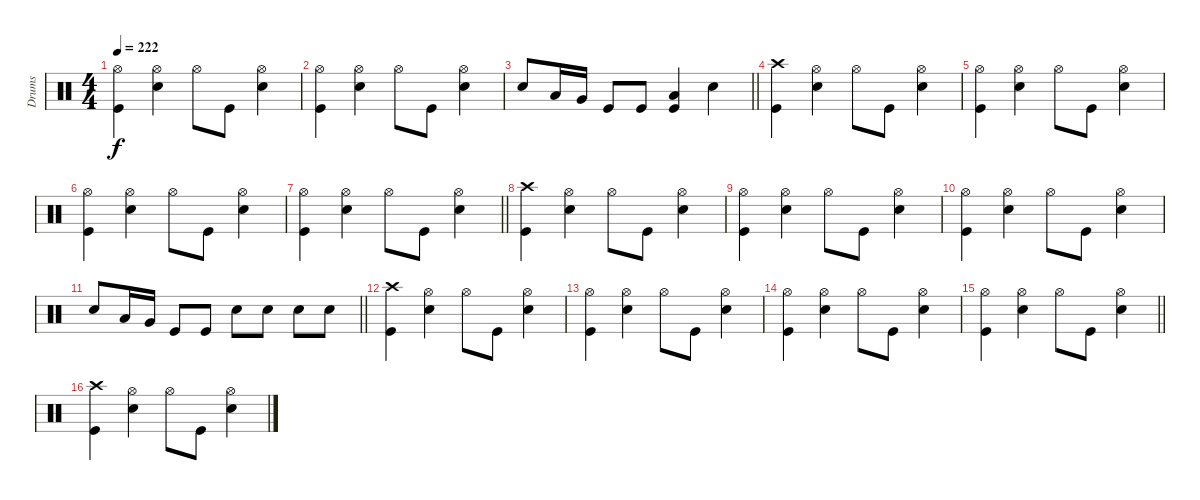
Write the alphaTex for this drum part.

\track ("Drums" "Drums") {instrument percussion}
\staff
\articulation defaults
\ts (4 4)
\tempo 222
\clef neutral
\ks c
("Hi-Hat (open)" "Kick (hit)").4{dy f} ("Hi-Hat (open)" "Electric Snare (hit)").4 "Hi-Hat (open)".8 "Kick (hit)".8 ("Hi-Hat (open)" "Electric Snare (hit)").4 |
("Hi-Hat (open)" "Kick (hit)").4 ("Hi-Hat (open)" "Electric Snare (hit)").4 "Hi-Hat (open)".8 "Kick (hit)".8 ("Hi-Hat (open)" "Electric Snare (hit)").4 |
\barLineRight lightlight "Electric Snare (hit)".8 "Low Tom (hit)".16 "Very Low Tom (hit)".16 "Kick (hit)".8 "Kick (hit)".8
("Low Floor Tom (hit)" "Kick (hit)").4 "Electric Snare (hit)".4 |
("Crash high (hit)" "Kick (hit)").4 ("Hi-Hat (open)" "Electric Snare (hit)").4 "Hi-Hat (open)".8 "Kick (hit)".8 ("Hi-Hat (open)" "Electric Snare (hit)").4 |
("Hi-Hat (open)" "Kick (hit)").4 ("Hi-Hat (open)" "Electric Snare (hit)").4 "Hi-Hat (open)".8 "Kick (hit)".8 ("Hi-Hat (open)" "Electric Snare (hit)").4 |
("Hi-Hat (open)" "Kick (hit)").4 ("Hi-Hat (open)" "Electric Snare (hit)").4 "Hi-Hat (open)".8 "Kick (hit)".8 ("Hi-Hat (open)" "Electric Snare (hit)").4 |
\barLineRight lightlight
("Hi-Hat (open)" "Kick (hit)").4 ("Hi-Hat (open)" "Electric Snare (hit)").4 "Hi-Hat (open)".8 "Kick (hit)".8 ("Hi-Hat (open)" "Electric Snare (hit)").4 |
("Crash high (hit)" "Kick (hit)").4 ("Hi-Hat (open)" "Electric Snare (hit)").4 "Hi-Hat (open)".8 "Kick (hit)".8 ("Hi-Hat (open)" "Electric Snare (hit)").4 |
("Hi-Hat (open)" "Kick (hit)").4 ("Hi-Hat (open)" "Electric Snare (hit)").4 "Hi-Hat (open)".8 "Kick (hit)".8 ("Hi-Hat (open)" "Electric Snare (hit)").4 |
("Hi-Hat (open)" "Kick (hit)").4 ("Hi-Hat (open)" "Electric Snare (hit)").4 "Hi-Hat (open)".8 "Kick (hit)".8 ("Hi-Hat (open)" "Electric Snare (hit)").4 |
\barLineRight lightlight "Electric Snare (hit)".8 "Low Tom (hit)".16 "Very Low Tom (hit)".16 "Kick (hit)".8 "Kick (hit)".8 "Electric Snare (hit)".8 "Electric Snare (hit)".8 "Electric Snare (hit)".8 "Electric Snare (hit)".8
|
("Crash high (hit)" "Kick (hit)").4 ("Hi-Hat (open)" "Electric Snare (hit)").4 "Hi-Hat (open)".8 "Kick (hit)".8 ("Hi-Hat (open)" "Electric Snare (hit)").4 |
("Hi-Hat (open)" "Kick (hit)").4 ("Hi-Hat (open)" "Electric Snare (hit)").4 "Hi-Hat (open)".8 "Kick (hit)".8 ("Hi-Hat (open)" "Electric Snare (hit)").4 |
("Hi-Hat (open)" "Kick (hit)").4 ("Hi-Hat (open)" "Electric Snare (hit)").4 "Hi-Hat (open)".8 "Kick (hit)".8 ("Hi-Hat (open)" "Electric Snare (hit)").4 |
\barLineRight lightlight
("Hi-Hat (open)" "Kick (hit)").4 ("Hi-Hat (open)" "Electric Snare (hit)").4 "Hi-Hat (open)".8 "Kick (hit)".8 ("Hi-Hat (open)" "Electric Snare (hit)").4 |
("Crash high (hit)" "Kick (hit)").4 ("Hi-Hat (open)" "Electric Snare (hit)").4 "Hi-Hat (open)".8 "Kick (hit)".8 ("Hi-Hat (open)" "Electric Snare (hit)").4
